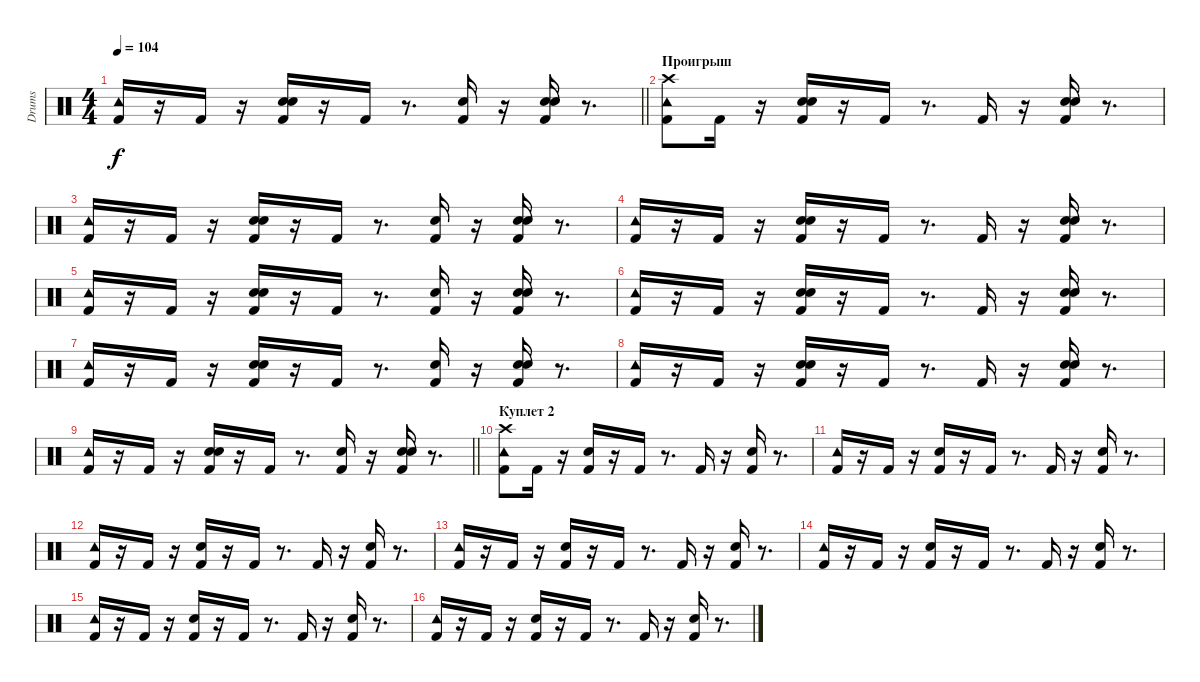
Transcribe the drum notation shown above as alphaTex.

\track ("Drums" "Drums") {instrument percussion}
\staff {score}
\articulation defaults
\ts (4 4)
\tempo 104
\clef neutral
\barLineRight lightlight
\ks c
("Tambourine (hit)" "Kick (hit) 2").16{dy f} r.16 "Kick (hit) 2".16 r.16 ("Hand Clap (hit)" "Kick (hit) 2" "Snare (hit) 2").16 r.16 "Kick (hit) 2".16 r.8{d} ("Hand Clap (hit)" "Kick (hit) 2").16 r.16 ("Hand Clap (hit)" "Snare (hit) 2" "Kick (hit) 2").16 r.8{d} |
\section ("" "Проигрыш")
("Tambourine (hit)" "Kick (hit) 2" "Crash high (hit)").8 "Kick (hit) 2".16 r.16 ("Kick (hit) 2" "Snare (hit) 2" "Hand Clap (hit)").16 r.16 "Kick (hit) 2".16 r.8{d} "Kick (hit) 2".16 r.16 ("Snare (hit) 2" "Kick (hit) 2" "Hand Clap (hit)").16 r.8{d} |
("Tambourine (hit)" "Kick (hit) 2").16 r.16 "Kick (hit) 2".16 r.16 ("Hand Clap (hit)" "Kick (hit) 2" "Snare (hit) 2").16 r.16 "Kick (hit) 2".16 r.8{d} ("Hand Clap (hit)" "Kick (hit) 2").16 r.16 ("Hand Clap (hit)" "Snare (hit) 2" "Kick (hit) 2").16 r.8{d} |
("Tambourine (hit)" "Kick (hit) 2").16 r.16 "Kick (hit) 2".16 r.16 ("Kick (hit) 2" "Snare (hit) 2" "Hand Clap (hit)").16 r.16 "Kick (hit) 2".16 r.8{d} "Kick (hit) 2".16 r.16 ("Snare (hit) 2" "Kick (hit) 2" "Hand Clap (hit)").16 r.8{d} |
("Tambourine (hit)" "Kick (hit) 2").16 r.16 "Kick (hit) 2".16 r.16 ("Hand Clap (hit)" "Kick (hit) 2" "Snare (hit) 2").16 r.16 "Kick (hit) 2".16 r.8{d} ("Hand Clap (hit)" "Kick (hit) 2").16 r.16 ("Hand Clap (hit)" "Snare (hit) 2" "Kick (hit) 2").16 r.8{d} |
("Tambourine (hit)" "Kick (hit) 2").16 r.16 "Kick (hit) 2".16 r.16 ("Kick (hit) 2" "Snare (hit) 2" "Hand Clap (hit)").16 r.16 "Kick (hit) 2".16 r.8{d} "Kick (hit) 2".16 r.16 ("Snare (hit) 2" "Kick (hit) 2" "Hand Clap (hit)").16 r.8{d} |
("Tambourine (hit)" "Kick (hit) 2").16 r.16 "Kick (hit) 2".16 r.16 ("Hand Clap (hit)" "Kick (hit) 2" "Snare (hit) 2").16 r.16 "Kick (hit) 2".16 r.8{d} ("Hand Clap (hit)" "Kick (hit) 2").16 r.16 ("Hand Clap (hit)" "Snare (hit) 2" "Kick (hit) 2").16 r.8{d} |
("Tambourine (hit)" "Kick (hit) 2").16 r.16 "Kick (hit) 2".16 r.16 ("Kick (hit) 2" "Snare (hit) 2" "Hand Clap (hit)").16 r.16 "Kick (hit) 2".16 r.8{d} "Kick (hit) 2".16 r.16 ("Snare (hit) 2" "Kick (hit) 2" "Hand Clap (hit)").16 r.8{d} |
\barLineRight lightlight
("Tambourine (hit)" "Kick (hit) 2").16 r.16 "Kick (hit) 2".16 r.16 ("Hand Clap (hit)" "Kick (hit) 2" "Snare (hit) 2").16 r.16 "Kick (hit) 2".16 r.8{d} ("Kick (hit) 2" "Hand Clap (hit)").16 r.16 ("Snare (hit) 2" "Kick (hit) 2" "Hand Clap (hit)").16 r.8{d} |
\section ("" "Куплет 2")
("Crash high (hit)" "Tambourine (hit)" "Kick (hit) 2").8 "Kick (hit) 2".16 r.16 ("Kick (hit) 2" "Snare (hit) 2").16 r.16 "Kick (hit) 2".16 r.8{d} "Kick (hit) 2".16 r.16 ("Snare (hit) 2" "Kick (hit) 2").16 r.8{d} |
("Tambourine (hit)" "Kick (hit) 2").16 r.16 "Kick (hit) 2".16 r.16 ("Kick (hit) 2" "Snare (hit) 2").16 r.16 "Kick (hit) 2".16 r.8{d} "Kick (hit) 2".16 r.16 ("Snare (hit) 2" "Kick (hit) 2").16 r.8{d} |
("Tambourine (hit)" "Kick (hit) 2").16 r.16 "Kick (hit) 2".16 r.16 ("Kick (hit) 2" "Snare (hit) 2").16 r.16 "Kick (hit) 2".16 r.8{d} "Kick (hit) 2".16 r.16 ("Snare (hit) 2" "Kick (hit) 2").16 r.8{d} |
("Tambourine (hit)" "Kick (hit) 2").16 r.16 "Kick (hit) 2".16 r.16 ("Kick (hit) 2" "Snare (hit) 2").16 r.16 "Kick (hit) 2".16 r.8{d} "Kick (hit) 2".16 r.16 ("Snare (hit) 2" "Kick (hit) 2").16 r.8{d} |
("Tambourine (hit)" "Kick (hit) 2").16 r.16 "Kick (hit) 2".16 r.16 ("Kick (hit) 2" "Snare (hit) 2").16 r.16 "Kick (hit) 2".16 r.8{d} "Kick (hit) 2".16 r.16 ("Snare (hit) 2" "Kick (hit) 2").16 r.8{d} |
("Tambourine (hit)" "Kick (hit) 2").16 r.16 "Kick (hit) 2".16 r.16 ("Kick (hit) 2" "Snare (hit) 2").16 r.16 "Kick (hit) 2".16 r.8{d} "Kick (hit) 2".16 r.16 ("Snare (hit) 2" "Kick (hit) 2").16 r.8{d} |
("Tambourine (hit)" "Kick (hit) 2").16 r.16 "Kick (hit) 2".16 r.16 ("Kick (hit) 2" "Snare (hit) 2").16 r.16 "Kick (hit) 2".16 r.8{d} "Kick (hit) 2".16 r.16 ("Snare (hit) 2" "Kick (hit) 2").16 r.8{d}
